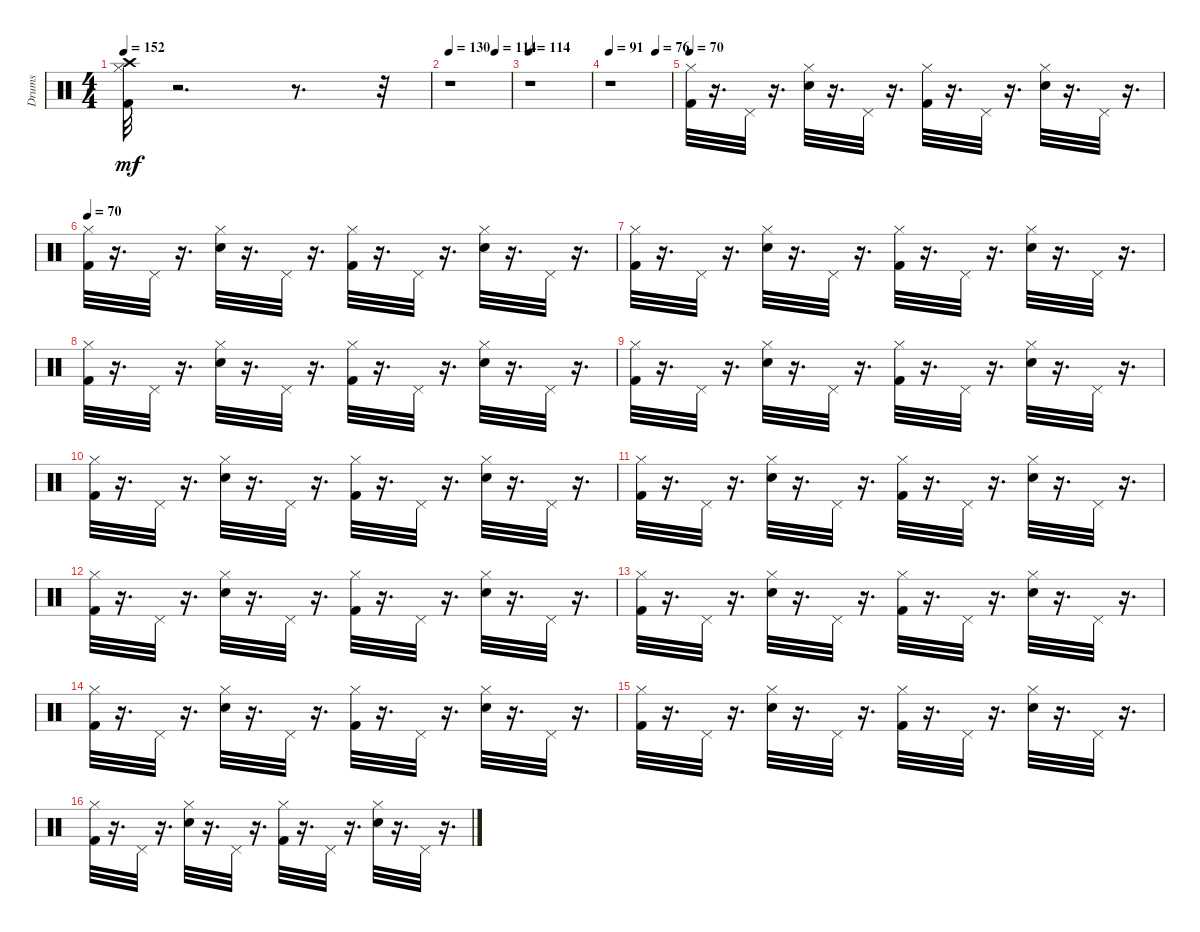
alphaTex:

\track ("Drums" "Drums") {instrument percussion}
\staff {score}
\articulation defaults
\ts (4 4)
\tempo 152
\clef neutral
\ks c
("Crash high (hit)" "Hi-Hat (closed)" "Kick (hit) 2").32{dy mf} r.2{d} r.8{d} r.32 |
\tempo 130
\tempo (114 0.75)
r.1 |
\tempo 114
r.1 |
\tempo 91
\tempo (76 0.75)
r.1 |
\tempo 70
("Hi-Hat (closed)" "Kick (hit) 2").32 r.16{d} "Pedal Hi-Hat (hit)".32 r.16{d} ("Hi-Hat (closed)" "Snare (hit) 2").32 r.16{d} "Pedal Hi-Hat (hit)".32 r.16{d} ("Hi-Hat (closed)" "Kick (hit) 2").32 r.16{d} "Pedal Hi-Hat (hit)".32 r.16{d} ("Hi-Hat (closed)" "Snare (hit) 2").32 r.16{d} "Pedal Hi-Hat (hit)".32 r.16{d} |
\tempo 70
("Hi-Hat (closed)" "Kick (hit) 2").32 r.16{d} "Pedal Hi-Hat (hit)".32 r.16{d} ("Hi-Hat (closed)" "Snare (hit) 2").32 r.16{d} "Pedal Hi-Hat (hit)".32 r.16{d} ("Hi-Hat (closed)" "Kick (hit) 2").32 r.16{d} "Pedal Hi-Hat (hit)".32 r.16{d} ("Hi-Hat (closed)" "Snare (hit) 2").32 r.16{d} "Pedal Hi-Hat (hit)".32 r.16{d} |
("Hi-Hat (closed)" "Kick (hit) 2").32 r.16{d} "Pedal Hi-Hat (hit)".32 r.16{d} ("Hi-Hat (closed)" "Snare (hit) 2").32 r.16{d} "Pedal Hi-Hat (hit)".32 r.16{d} ("Hi-Hat (closed)" "Kick (hit) 2").32 r.16{d} "Pedal Hi-Hat (hit)".32 r.16{d} ("Hi-Hat (closed)" "Snare (hit) 2").32 r.16{d} "Pedal Hi-Hat (hit)".32 r.16{d} |
("Hi-Hat (closed)" "Kick (hit) 2").32 r.16{d} "Pedal Hi-Hat (hit)".32 r.16{d} ("Hi-Hat (closed)" "Snare (hit) 2").32 r.16{d} "Pedal Hi-Hat (hit)".32 r.16{d} ("Hi-Hat (closed)" "Kick (hit) 2").32 r.16{d} "Pedal Hi-Hat (hit)".32 r.16{d} ("Hi-Hat (closed)" "Snare (hit) 2").32 r.16{d} "Pedal Hi-Hat (hit)".32 r.16{d} |
("Hi-Hat (closed)" "Kick (hit) 2").32 r.16{d} "Pedal Hi-Hat (hit)".32 r.16{d} ("Hi-Hat (closed)" "Snare (hit) 2").32 r.16{d} "Pedal Hi-Hat (hit)".32 r.16{d} ("Hi-Hat (closed)" "Kick (hit) 2").32 r.16{d} "Pedal Hi-Hat (hit)".32 r.16{d} ("Hi-Hat (closed)" "Snare (hit) 2").32 r.16{d} "Pedal Hi-Hat (hit)".32 r.16{d} |
("Hi-Hat (closed)" "Kick (hit) 2").32 r.16{d} "Pedal Hi-Hat (hit)".32 r.16{d} ("Hi-Hat (closed)" "Snare (hit) 2").32 r.16{d} "Pedal Hi-Hat (hit)".32 r.16{d} ("Hi-Hat (closed)" "Kick (hit) 2").32 r.16{d} "Pedal Hi-Hat (hit)".32 r.16{d} ("Hi-Hat (closed)" "Snare (hit) 2").32 r.16{d} "Pedal Hi-Hat (hit)".32 r.16{d} |
("Hi-Hat (closed)" "Kick (hit) 2").32 r.16{d} "Pedal Hi-Hat (hit)".32 r.16{d} ("Hi-Hat (closed)" "Snare (hit) 2").32 r.16{d} "Pedal Hi-Hat (hit)".32 r.16{d} ("Hi-Hat (closed)" "Kick (hit) 2").32 r.16{d} "Pedal Hi-Hat (hit)".32 r.16{d} ("Hi-Hat (closed)" "Snare (hit) 2").32 r.16{d} "Pedal Hi-Hat (hit)".32 r.16{d} |
("Hi-Hat (closed)" "Kick (hit) 2").32 r.16{d} "Pedal Hi-Hat (hit)".32 r.16{d} ("Hi-Hat (closed)" "Snare (hit) 2").32 r.16{d} "Pedal Hi-Hat (hit)".32 r.16{d} ("Hi-Hat (closed)" "Kick (hit) 2").32 r.16{d} "Pedal Hi-Hat (hit)".32 r.16{d} ("Hi-Hat (closed)" "Snare (hit) 2").32 r.16{d} "Pedal Hi-Hat (hit)".32 r.16{d} |
("Hi-Hat (closed)" "Kick (hit) 2").32 r.16{d} "Pedal Hi-Hat (hit)".32 r.16{d} ("Hi-Hat (closed)" "Snare (hit) 2").32 r.16{d} "Pedal Hi-Hat (hit)".32 r.16{d} ("Hi-Hat (closed)" "Kick (hit) 2").32 r.16{d} "Pedal Hi-Hat (hit)".32 r.16{d} ("Hi-Hat (closed)" "Snare (hit) 2").32 r.16{d} "Pedal Hi-Hat (hit)".32 r.16{d} |
("Hi-Hat (closed)" "Kick (hit) 2").32 r.16{d} "Pedal Hi-Hat (hit)".32 r.16{d} ("Hi-Hat (closed)" "Snare (hit) 2").32 r.16{d} "Pedal Hi-Hat (hit)".32 r.16{d} ("Hi-Hat (closed)" "Kick (hit) 2").32 r.16{d} "Pedal Hi-Hat (hit)".32 r.16{d} ("Hi-Hat (closed)" "Snare (hit) 2").32 r.16{d} "Pedal Hi-Hat (hit)".32 r.16{d} |
("Hi-Hat (closed)" "Kick (hit) 2").32 r.16{d} "Pedal Hi-Hat (hit)".32 r.16{d} ("Hi-Hat (closed)" "Snare (hit) 2").32 r.16{d} "Pedal Hi-Hat (hit)".32 r.16{d} ("Hi-Hat (closed)" "Kick (hit) 2").32 r.16{d} "Pedal Hi-Hat (hit)".32 r.16{d} ("Hi-Hat (closed)" "Snare (hit) 2").32 r.16{d} "Pedal Hi-Hat (hit)".32 r.16{d} |
("Hi-Hat (closed)" "Kick (hit) 2").32 r.16{d} "Pedal Hi-Hat (hit)".32 r.16{d} ("Hi-Hat (closed)" "Snare (hit) 2").32 r.16{d} "Pedal Hi-Hat (hit)".32 r.16{d} ("Hi-Hat (closed)" "Kick (hit) 2").32 r.16{d} "Pedal Hi-Hat (hit)".32 r.16{d} ("Hi-Hat (closed)" "Snare (hit) 2").32 r.16{d} "Pedal Hi-Hat (hit)".32 r.16{d}
